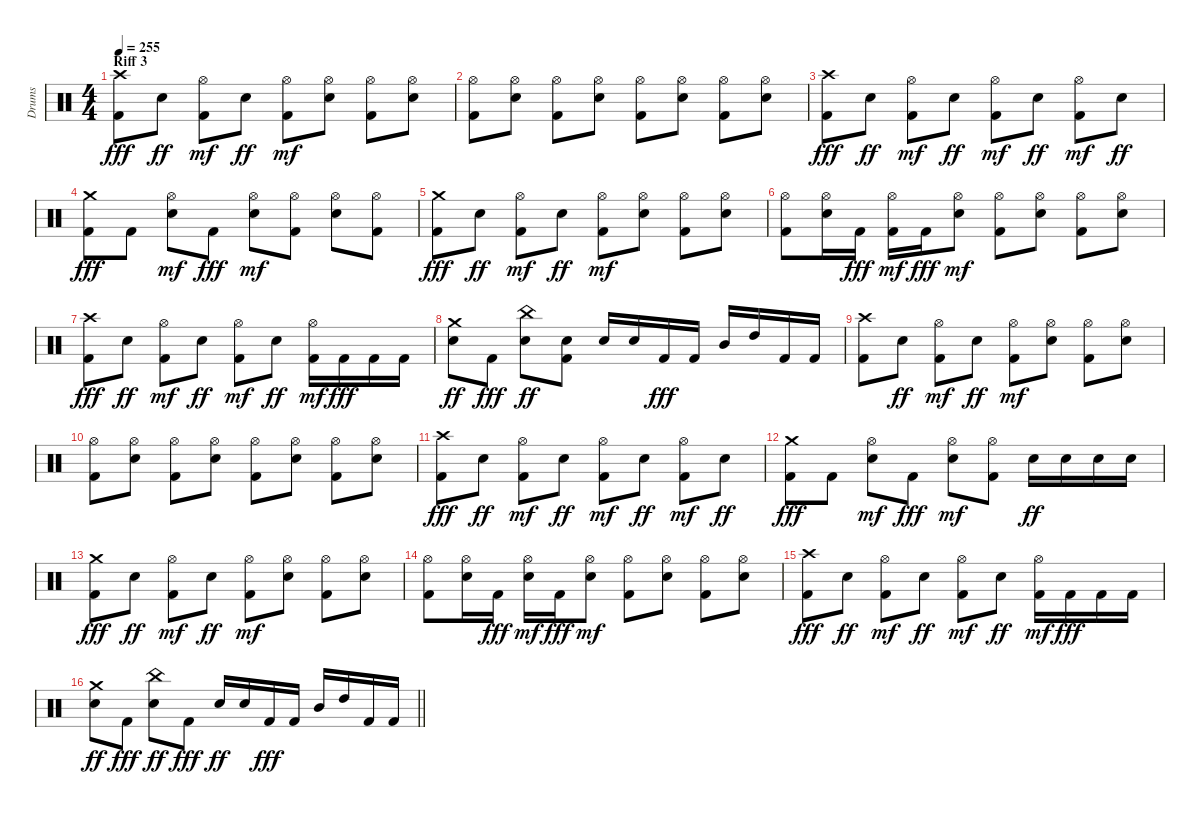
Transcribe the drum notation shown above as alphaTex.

\track ("Drums" "Drums") {instrument percussion}
\staff {score}
\articulation defaults
\ts (4 4)
\section ("" "Riff 3")
\tempo 255
\clef neutral
\ks c
("Kick (hit) 2" "Crash high (hit)").8{dy fff} "Snare (hit) 2".8{dy ff} ("Kick (hit) 2" "Hi-Hat (open)").8{dy mf} "Snare (hit) 2".8{dy ff} ("Kick (hit) 2" "Hi-Hat (open)").8{dy mf} ("Snare (hit) 2" "Hi-Hat (open)").8 ("Kick (hit) 2" "Hi-Hat (open)").8 ("Snare (hit) 2" "Hi-Hat (open)").8 |
("Kick (hit) 2" "Hi-Hat (open)").8 ("Snare (hit) 2" "Hi-Hat (open)").8 ("Kick (hit) 2" "Hi-Hat (open)").8 ("Snare (hit) 2" "Hi-Hat (open)").8 ("Kick (hit) 2" "Hi-Hat (open)").8 ("Snare (hit) 2" "Hi-Hat (open)").8 ("Kick (hit) 2" "Hi-Hat (open)").8 ("Snare (hit) 2" "Hi-Hat (open)").8 |
("Kick (hit) 2" "Crash high (hit)").8{dy fff} "Snare (hit) 2".8{dy ff} ("Kick (hit) 2" "Hi-Hat (open)").8{dy mf} "Snare (hit) 2".8{dy ff} ("Kick (hit) 2" "Hi-Hat (open)").8{dy mf} "Snare (hit) 2".8{dy ff} ("Kick (hit) 2" "Hi-Hat (open)").8{dy mf} "Snare (hit) 2".8{dy ff} |
("Kick (hit) 2" "Crash medium (hit)").8{dy fff} "Kick (hit) 2".8 ("Snare (hit) 2" "Hi-Hat (open)").8{dy mf} "Kick (hit) 2".8{dy fff} ("Snare (hit) 2" "Hi-Hat (open)").8{dy mf} ("Kick (hit) 2" "Hi-Hat (open)").8 ("Snare (hit) 2" "Hi-Hat (open)").8 ("Kick (hit) 2" "Hi-Hat (open)").8 |
("Kick (hit) 2" "Crash medium (hit)").8{dy fff} "Snare (hit) 2".8{dy ff} ("Kick (hit) 2" "Hi-Hat (open)").8{dy mf} "Snare (hit) 2".8{dy ff} ("Kick (hit) 2" "Hi-Hat (open)").8{dy mf} ("Snare (hit) 2" "Hi-Hat (open)").8 ("Kick (hit) 2" "Hi-Hat (open)").8 ("Snare (hit) 2" "Hi-Hat (open)").8 |
("Kick (hit) 2" "Hi-Hat (open)").8 ("Snare (hit) 2" "Hi-Hat (open)").16 "Kick (hit) 2".16{dy fff} ("Kick (hit) 2" "Hi-Hat (open)").16{dy mf} "Kick (hit) 2".16{dy fff} ("Snare (hit) 2" "Hi-Hat (open)").8{dy mf} ("Kick (hit) 2" "Hi-Hat (open)").8 ("Snare (hit) 2" "Hi-Hat (open)").8 ("Kick (hit) 2" "Hi-Hat (open)").8 ("Snare (hit) 2" "Hi-Hat (open)").8 |
("Kick (hit) 2" "Crash high (hit)").8{dy fff} "Snare (hit) 2".8{dy ff} ("Kick (hit) 2" "Hi-Hat (open)").8{dy mf} "Snare (hit) 2".8{dy ff} ("Kick (hit) 2" "Hi-Hat (open)").8{dy mf} "Snare (hit) 2".8{dy ff} ("Kick (hit) 2" "Hi-Hat (open)").16{dy mf} "Kick (hit) 2".16{dy fff} "Kick (hit) 2".16 "Kick (hit) 2".16 |
("Snare (hit) 2" "Crash medium (hit)").8{dy ff} "Kick (hit) 2".8{dy fff} ("Snare (hit) 2" "China (hit)").8{dy ff} ("Kick (hit) 2" "Snare (hit) 2").8 "Snare (hit) 2".16 "Snare (hit) 2".16 "Kick (hit) 2".16{dy fff} "Kick (hit) 2".16 "Mid Tom (hit)".16 "High Tom (hit)".16 "Kick (hit) 2".16 "Kick (hit) 2".16 |
("Kick (hit) 2" "Crash high (hit)").8 "Snare (hit) 2".8{dy ff} ("Kick (hit) 2" "Hi-Hat (open)").8{dy mf} "Snare (hit) 2".8{dy ff} ("Kick (hit) 2" "Hi-Hat (open)").8{dy mf} ("Snare (hit) 2" "Hi-Hat (open)").8 ("Kick (hit) 2" "Hi-Hat (open)").8 ("Snare (hit) 2" "Hi-Hat (open)").8 |
("Kick (hit) 2" "Hi-Hat (open)").8 ("Snare (hit) 2" "Hi-Hat (open)").8 ("Kick (hit) 2" "Hi-Hat (open)").8 ("Snare (hit) 2" "Hi-Hat (open)").8 ("Kick (hit) 2" "Hi-Hat (open)").8 ("Snare (hit) 2" "Hi-Hat (open)").8 ("Kick (hit) 2" "Hi-Hat (open)").8 ("Snare (hit) 2" "Hi-Hat (open)").8 |
("Kick (hit) 2" "Crash high (hit)").8{dy fff} "Snare (hit) 2".8{dy ff} ("Kick (hit) 2" "Hi-Hat (open)").8{dy mf} "Snare (hit) 2".8{dy ff} ("Kick (hit) 2" "Hi-Hat (open)").8{dy mf} "Snare (hit) 2".8{dy ff} ("Kick (hit) 2" "Hi-Hat (open)").8{dy mf} "Snare (hit) 2".8{dy ff} |
("Kick (hit) 2" "Crash medium (hit)").8{dy fff} "Kick (hit) 2".8 ("Snare (hit) 2" "Hi-Hat (open)").8{dy mf} "Kick (hit) 2".8{dy fff} ("Snare (hit) 2" "Hi-Hat (open)").8{dy mf} ("Kick (hit) 2" "Hi-Hat (open)").8 "Snare (hit) 2".16{dy ff} "Snare (hit) 2".16 "Snare (hit) 2".16 "Snare (hit) 2".16 |
("Kick (hit) 2" "Crash medium (hit)").8{dy fff} "Snare (hit) 2".8{dy ff} ("Kick (hit) 2" "Hi-Hat (open)").8{dy mf} "Snare (hit) 2".8{dy ff} ("Kick (hit) 2" "Hi-Hat (open)").8{dy mf} ("Snare (hit) 2" "Hi-Hat (open)").8 ("Kick (hit) 2" "Hi-Hat (open)").8 ("Snare (hit) 2" "Hi-Hat (open)").8 |
("Kick (hit) 2" "Hi-Hat (open)").8 ("Snare (hit) 2" "Hi-Hat (open)").16 "Kick (hit) 2".16{dy fff} ("Snare (hit) 2" "Hi-Hat (open)").16{dy mf} "Kick (hit) 2".16{dy fff} ("Snare (hit) 2" "Hi-Hat (open)").8{dy mf} ("Kick (hit) 2" "Hi-Hat (open)").8 ("Snare (hit) 2" "Hi-Hat (open)").8 ("Kick (hit) 2" "Hi-Hat (open)").8 ("Snare (hit) 2" "Hi-Hat (open)").8 |
("Kick (hit) 2" "Crash high (hit)").8{dy fff} "Snare (hit) 2".8{dy ff} ("Kick (hit) 2" "Hi-Hat (open)").8{dy mf} "Snare (hit) 2".8{dy ff} ("Kick (hit) 2" "Hi-Hat (open)").8{dy mf} "Snare (hit) 2".8{dy ff} ("Kick (hit) 2" "Hi-Hat (open)").16{dy mf} "Kick (hit) 2".16{dy fff} "Kick (hit) 2".16 "Kick (hit) 2".16 |
\barLineRight lightlight
("Snare (hit) 2" "Crash medium (hit)").8{dy ff} "Kick (hit) 2".8{dy fff} ("Snare (hit) 2" "China (hit)").8{dy ff} "Kick (hit) 2".8{dy fff} "Snare (hit) 2".16{dy ff} "Snare (hit) 2".16 "Kick (hit) 2".16{dy fff} "Kick (hit) 2".16 "Mid Tom (hit)".16 "High Tom (hit)".16 "Kick (hit) 2".16 "Kick (hit) 2".16
